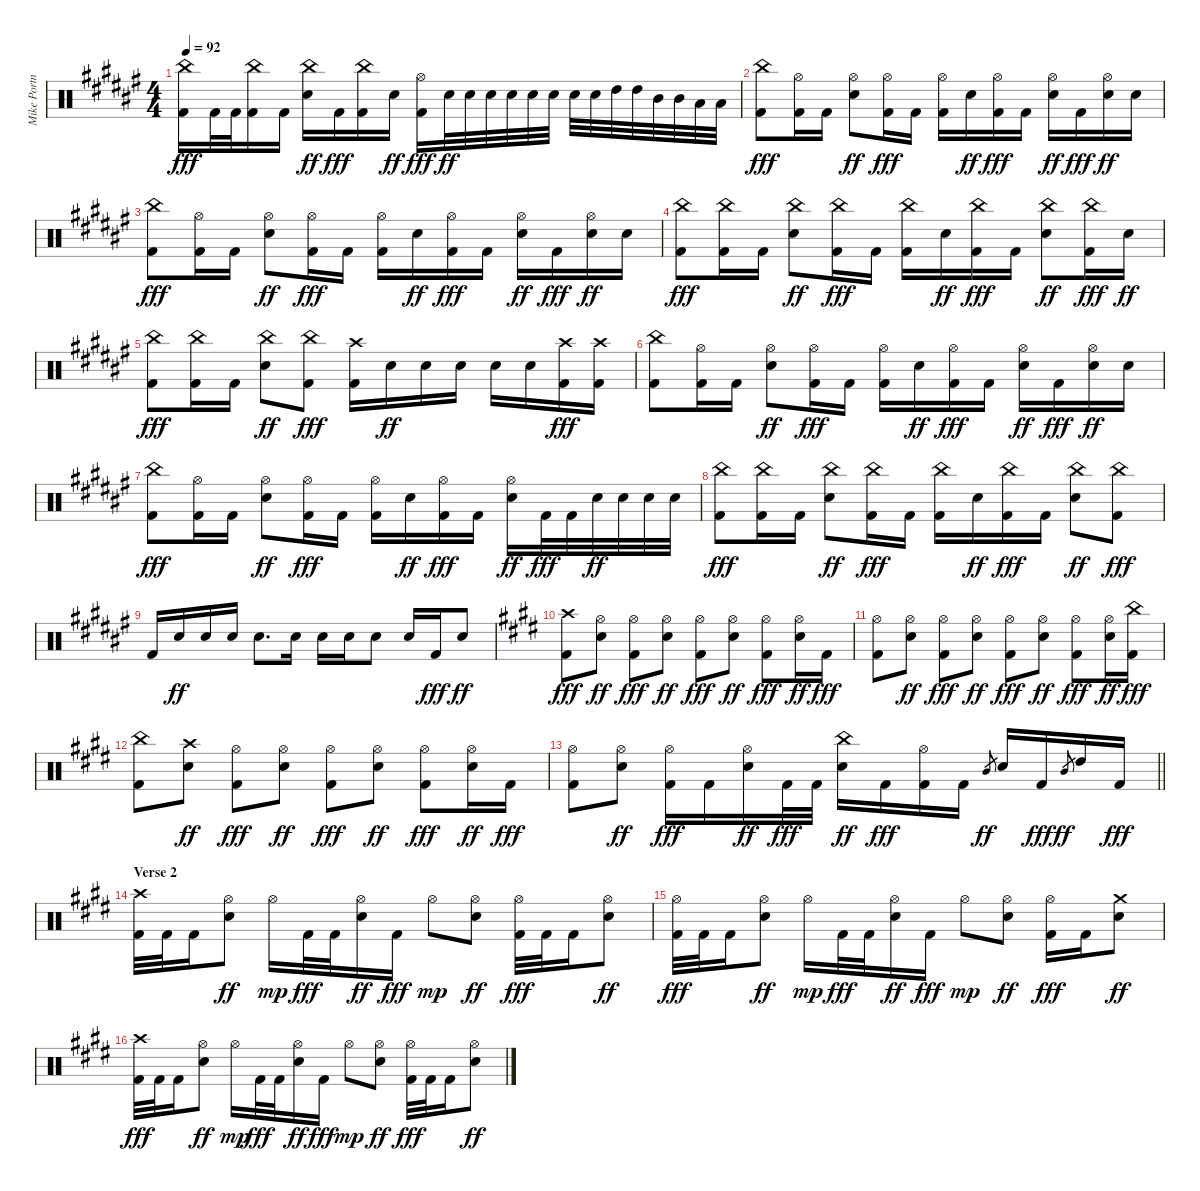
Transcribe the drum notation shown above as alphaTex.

\track ("Mike Portnoy" "Mike Portn") {instrument percussion}
\staff {score}
\articulation defaults
\ts (4 4)
\tempo 92
\clef neutral
\ks f#
("China (hit)" "Kick (hit) 2").16{dy fff} "Kick (hit) 2".32 "Kick (hit) 2".32 ("China (hit)" "Kick (hit) 2").16 "Kick (hit) 2".16 ("China (hit)" "Electric Snare (hit)").16{dy ff} "Kick (hit) 2".16{dy fff} ("China (hit)" "Kick (hit) 2").16 "Electric Snare (hit)".16{dy ff} ("Hi-Hat (open)" "Kick (hit) 2").16{dy fff} "Electric Snare (hit)".32{dy ff} "Electric Snare (hit)".32 "Electric Snare (hit)".32 "Electric Snare (hit)".32 "Electric Snare (hit)".32 "Electric Snare (hit)".32 "Electric Snare (hit)".32 "Electric Snare (hit)".32 "High Tom (hit)".32 "High Tom (hit)".32 "Mid Tom (hit)".32 "Mid Tom (hit)".32 "Low Tom (hit)".32 "Low Tom (hit)".32 |
("China (hit)" "Kick (hit) 2").8{dy fff} ("Hi-Hat (open)" "Kick (hit) 2").16 "Kick (hit) 2".16 ("Hi-Hat (open)" "Electric Snare (hit)").8{dy ff} ("Hi-Hat (open)" "Kick (hit) 2").16{dy fff} "Kick (hit) 2".16 ("Hi-Hat (open)" "Kick (hit) 2").16 "Electric Snare (hit)".16{dy ff} ("Hi-Hat (open)" "Kick (hit) 2").16{dy fff} "Kick (hit) 2".16 ("Hi-Hat (open)" "Electric Snare (hit)").16{dy ff} "Kick (hit) 2".16{dy fff} ("Hi-Hat (open)" "Electric Snare (hit)").16{dy ff} "Electric Snare (hit)".16 |
("China (hit)" "Kick (hit) 2").8{dy fff} ("Hi-Hat (open)" "Kick (hit) 2").16 "Kick (hit) 2".16 ("Hi-Hat (open)" "Electric Snare (hit)").8{dy ff} ("Hi-Hat (open)" "Kick (hit) 2").16{dy fff} "Kick (hit) 2".16 ("Hi-Hat (open)" "Kick (hit) 2").16 "Electric Snare (hit)".16{dy ff} ("Hi-Hat (open)" "Kick (hit) 2").16{dy fff} "Kick (hit) 2".16 ("Hi-Hat (open)" "Electric Snare (hit)").16{dy ff} "Kick (hit) 2".16{dy fff} ("Hi-Hat (open)" "Electric Snare (hit)").16{dy ff} "Electric Snare (hit)".16 |
("China (hit)" "Kick (hit) 2").8{dy fff} ("China (hit)" "Kick (hit) 2").16 "Kick (hit) 2".16 ("China (hit)" "Electric Snare (hit)").8{dy ff} ("China (hit)" "Kick (hit) 2").16{dy fff} "Kick (hit) 2".16 ("China (hit)" "Kick (hit) 2").16 "Electric Snare (hit)".16{dy ff} ("China (hit)" "Kick (hit) 2").16{dy fff} "Kick (hit) 2".16 ("China (hit)" "Electric Snare (hit)").8{dy ff} ("China (hit)" "Kick (hit) 2").16{dy fff} "Electric Snare (hit)".16{dy ff} |
("China (hit)" "Kick (hit) 2").8{dy fff} ("China (hit)" "Kick (hit) 2").16 "Kick (hit) 2".16 ("China (hit)" "Electric Snare (hit)").8{dy ff} ("China (hit)" "Kick (hit) 2").8{dy fff} ("Crash high (hit)" "Kick (hit) 2").16 "Electric Snare (hit)".16{dy ff} "Electric Snare (hit)".16 "Electric Snare (hit)".16 "Electric Snare (hit)".16 "Electric Snare (hit)".16 ("Crash high (hit)" "Kick (hit) 2").16{dy fff} ("Crash high (hit)" "Kick (hit) 2").16 |
("China (hit)" "Kick (hit) 2").8 ("Hi-Hat (open)" "Kick (hit) 2").16 "Kick (hit) 2".16 ("Hi-Hat (open)" "Electric Snare (hit)").8{dy ff} ("Hi-Hat (open)" "Kick (hit) 2").16{dy fff} "Kick (hit) 2".16 ("Hi-Hat (open)" "Kick (hit) 2").16 "Electric Snare (hit)".16{dy ff} ("Hi-Hat (open)" "Kick (hit) 2").16{dy fff} "Kick (hit) 2".16 ("Hi-Hat (open)" "Electric Snare (hit)").16{dy ff} "Kick (hit) 2".16{dy fff} ("Hi-Hat (open)" "Electric Snare (hit)").16{dy ff} "Electric Snare (hit)".16 |
("China (hit)" "Kick (hit) 2").8{dy fff} ("Hi-Hat (open)" "Kick (hit) 2").16 "Kick (hit) 2".16 ("Hi-Hat (open)" "Electric Snare (hit)").8{dy ff} ("Hi-Hat (open)" "Kick (hit) 2").16{dy fff} "Kick (hit) 2".16 ("Hi-Hat (open)" "Kick (hit) 2").16 "Electric Snare (hit)".16{dy ff} ("Hi-Hat (open)" "Kick (hit) 2").16{dy fff} "Kick (hit) 2".16 ("Hi-Hat (open)" "Electric Snare (hit)").16{dy ff} "Kick (hit) 2".32{dy fff} "Kick (hit) 2".32 "Electric Snare (hit)".32{dy ff} "Electric Snare (hit)".32 "Electric Snare (hit)".32 "Electric Snare (hit)".32 |
("China (hit)" "Kick (hit) 2").8{dy fff} ("China (hit)" "Kick (hit) 2").16 "Kick (hit) 2".16 ("China (hit)" "Electric Snare (hit)").8{dy ff} ("China (hit)" "Kick (hit) 2").16{dy fff} "Kick (hit) 2".16 ("China (hit)" "Kick (hit) 2").16 "Electric Snare (hit)".16{dy ff} ("China (hit)" "Kick (hit) 2").16{dy fff} "Kick (hit) 2".16 ("China (hit)" "Electric Snare (hit)").8{dy ff} ("China (hit)" "Kick (hit) 2").8{dy fff} |
"Kick (hit) 2".16 "Electric Snare (hit)".16{dy ff} "Electric Snare (hit)".16 "Electric Snare (hit)".16 "Electric Snare (hit)".8{d} "Electric Snare (hit)".16 "Electric Snare (hit)".16 "Electric Snare (hit)".16 "Electric Snare (hit)".8 "Electric Snare (hit)".16 "Kick (hit) 2".16{dy fff} "Electric Snare (hit)".8{dy ff} |
\ks e
("Crash high (hit)" "Kick (hit) 2").8{dy fff} ("Hi-Hat (open)" "Electric Snare (hit)").8{dy ff} ("Hi-Hat (open)" "Kick (hit) 2").8{dy fff} ("Hi-Hat (open)" "Electric Snare (hit)").8{dy ff} ("Hi-Hat (open)" "Kick (hit) 2").8{dy fff} ("Hi-Hat (open)" "Electric Snare (hit)").8{dy ff} ("Hi-Hat (open)" "Kick (hit) 2").8{dy fff} ("Hi-Hat (open)" "Electric Snare (hit)").16{dy ff} "Kick (hit) 2".16{dy fff} |
("Hi-Hat (open)" "Kick (hit) 2").8 ("Hi-Hat (open)" "Electric Snare (hit)").8{dy ff} ("Hi-Hat (open)" "Kick (hit) 2").8{dy fff} ("Hi-Hat (open)" "Electric Snare (hit)").8{dy ff} ("Hi-Hat (open)" "Kick (hit) 2").8{dy fff} ("Hi-Hat (open)" "Electric Snare (hit)").8{dy ff} ("Hi-Hat (open)" "Kick (hit) 2").8{dy fff} ("Hi-Hat (open)" "Electric Snare (hit)").16{dy ff} ("China (hit)" "Kick (hit) 2").16{dy fff} |
("China (hit)" "Kick (hit) 2").8 ("Crash high (hit)" "Electric Snare (hit)").8{dy ff} ("Hi-Hat (open)" "Kick (hit) 2").8{dy fff} ("Hi-Hat (open)" "Electric Snare (hit)").8{dy ff} ("Hi-Hat (open)" "Kick (hit) 2").8{dy fff} ("Hi-Hat (open)" "Electric Snare (hit)").8{dy ff} ("Hi-Hat (open)" "Kick (hit) 2").8{dy fff} ("Hi-Hat (open)" "Electric Snare (hit)").16{dy ff} "Kick (hit) 2".16{dy fff} |
\barLineRight lightlight
("Hi-Hat (open)" "Kick (hit) 2").8 ("Hi-Hat (open)" "Electric Snare (hit)").8{dy ff} ("Hi-Hat (open)" "Kick (hit) 2").16{dy fff} "Kick (hit) 2".16 ("Hi-Hat (open)" "Electric Snare (hit)").16{dy ff} "Kick (hit) 2".32{dy fff} "Kick (hit) 2".32 ("China (hit)" "Electric Snare (hit)").16{dy ff} "Kick (hit) 2".16{dy fff} ("Hi-Hat (open)" "Kick (hit) 2").16 "Kick (hit) 2".16 "Mid Tom (hit)".8{gr dy ff} "Electric Snare (hit)".16 "Kick (hit) 2".16{dy fff} "Mid Tom (hit)".8{gr dy ff} "High Tom (hit)".16 "Kick (hit) 2".16{dy fff} |
\section ("" "Verse 2")
("Crash high (hit)" "Kick (hit) 2").32 "Kick (hit) 2".32 "Kick (hit) 2".16 ("Hi-Hat (open)" "Electric Snare (hit)").8{dy ff} "Hi-Hat (open)".16{dy mp} "Kick (hit) 2".32{dy fff} "Kick (hit) 2".32 ("Hi-Hat (open)" "Electric Snare (hit)").16{dy ff} "Kick (hit) 2".16{dy fff} "Hi-Hat (open)".8{dy mp} ("Hi-Hat (open)" "Electric Snare (hit)").8{dy ff} ("Hi-Hat (open)" "Kick (hit) 2").32{dy fff} "Kick (hit) 2".32 "Kick (hit) 2".16 ("Hi-Hat (open)" "Electric Snare (hit)").8{dy ff} |
("Hi-Hat (open)" "Kick (hit) 2").32{dy fff} "Kick (hit) 2".32 "Kick (hit) 2".16 ("Hi-Hat (open)" "Electric Snare (hit)").8{dy ff} "Hi-Hat (open)".16{dy mp} "Kick (hit) 2".32{dy fff} "Kick (hit) 2".32 ("Hi-Hat (open)" "Electric Snare (hit)").16{dy ff} "Kick (hit) 2".16{dy fff} "Hi-Hat (open)".8{dy mp} ("Hi-Hat (open)" "Electric Snare (hit)").8{dy ff} ("Hi-Hat (open)" "Kick (hit) 2").16{dy fff} "Kick (hit) 2".16 ("Crash medium (hit)" "Electric Snare (hit)").8{dy ff} |
("Crash high (hit)" "Kick (hit) 2").32{dy fff} "Kick (hit) 2".32 "Kick (hit) 2".16 ("Hi-Hat (open)" "Electric Snare (hit)").8{dy ff} "Hi-Hat (open)".16{dy mp} "Kick (hit) 2".32{dy fff} "Kick (hit) 2".32 ("Hi-Hat (open)" "Electric Snare (hit)").16{dy ff} "Kick (hit) 2".16{dy fff} "Hi-Hat (open)".8{dy mp} ("Hi-Hat (open)" "Electric Snare (hit)").8{dy ff} ("Hi-Hat (open)" "Kick (hit) 2").32{dy fff} "Kick (hit) 2".32 "Kick (hit) 2".16 ("Hi-Hat (open)" "Electric Snare (hit)").8{dy ff}
